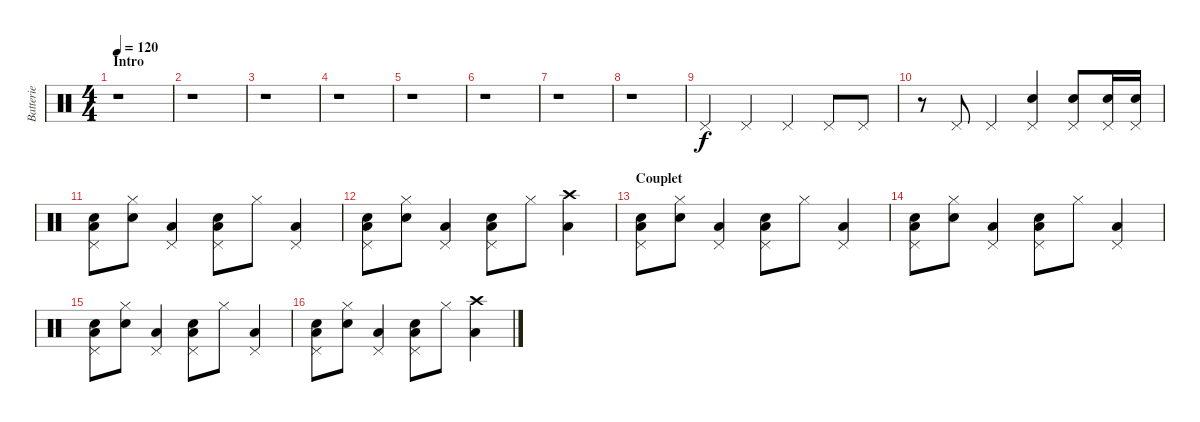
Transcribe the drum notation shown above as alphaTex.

\track ("Batterie" "Batterie") {instrument percussion}
\staff {score}
\articulation defaults
\ts (4 4)
\section ("" "Intro")
\tempo 120
\clef neutral
\ks c
r.1{dy f} |
r.1 |
r.1 |
r.1 |
r.1 |
r.1 |
r.1 |
r.1 |
"Pedal Hi-Hat (hit)".4 "Pedal Hi-Hat (hit)".4 "Pedal Hi-Hat (hit)".4 "Pedal Hi-Hat (hit)".8 "Pedal Hi-Hat (hit)".8 |
r.8 "Pedal Hi-Hat (hit)".8 "Pedal Hi-Hat (hit)".4 ("Pedal Hi-Hat (hit)" "Snare (hit) 2").4 ("Pedal Hi-Hat (hit)" "Snare (hit) 2").8 ("Pedal Hi-Hat (hit)" "Snare (hit) 2").16 ("Pedal Hi-Hat (hit)" "Snare (hit) 2").16 |
("Pedal Hi-Hat (hit)" "Low Tom (hit)" "Snare (hit) 2").8 ("Hi-Hat (closed)" "Snare (hit) 2").8 ("Pedal Hi-Hat (hit)" "Low Tom (hit)").4 ("Pedal Hi-Hat (hit)" "Low Tom (hit)" "Snare (hit) 2").8 "Hi-Hat (closed)".8 ("Pedal Hi-Hat (hit)" "Low Tom (hit)").4 |
("Pedal Hi-Hat (hit)" "Low Tom (hit)" "Snare (hit) 2").8 ("Hi-Hat (closed)" "Snare (hit) 2").8 ("Pedal Hi-Hat (hit)" "Low Tom (hit)").4 ("Pedal Hi-Hat (hit)" "Low Tom (hit)" "Snare (hit) 2").8 "Hi-Hat (closed)".8 ("Low Tom (hit)" "Crash high (hit)").4 |
\section ("" "Couplet")
("Pedal Hi-Hat (hit)" "Low Tom (hit)" "Snare (hit) 2").8 ("Hi-Hat (closed)" "Snare (hit) 2").8 ("Pedal Hi-Hat (hit)" "Low Tom (hit)").4 ("Pedal Hi-Hat (hit)" "Low Tom (hit)" "Snare (hit) 2").8 "Hi-Hat (closed)".8 ("Pedal Hi-Hat (hit)" "Low Tom (hit)").4 |
("Pedal Hi-Hat (hit)" "Low Tom (hit)" "Snare (hit) 2").8 ("Hi-Hat (closed)" "Snare (hit) 2").8 ("Pedal Hi-Hat (hit)" "Low Tom (hit)").4 ("Pedal Hi-Hat (hit)" "Low Tom (hit)" "Snare (hit) 2").8 "Hi-Hat (closed)".8 ("Pedal Hi-Hat (hit)" "Low Tom (hit)").4 |
("Pedal Hi-Hat (hit)" "Low Tom (hit)" "Snare (hit) 2").8 ("Hi-Hat (closed)" "Snare (hit) 2").8 ("Pedal Hi-Hat (hit)" "Low Tom (hit)").4 ("Pedal Hi-Hat (hit)" "Low Tom (hit)" "Snare (hit) 2").8 "Hi-Hat (closed)".8 ("Pedal Hi-Hat (hit)" "Low Tom (hit)").4 |
("Pedal Hi-Hat (hit)" "Low Tom (hit)" "Snare (hit) 2").8 ("Hi-Hat (closed)" "Snare (hit) 2").8 ("Pedal Hi-Hat (hit)" "Low Tom (hit)").4 ("Pedal Hi-Hat (hit)" "Low Tom (hit)" "Snare (hit) 2").8 "Hi-Hat (closed)".8 ("Low Tom (hit)" "Crash high (hit)").4
